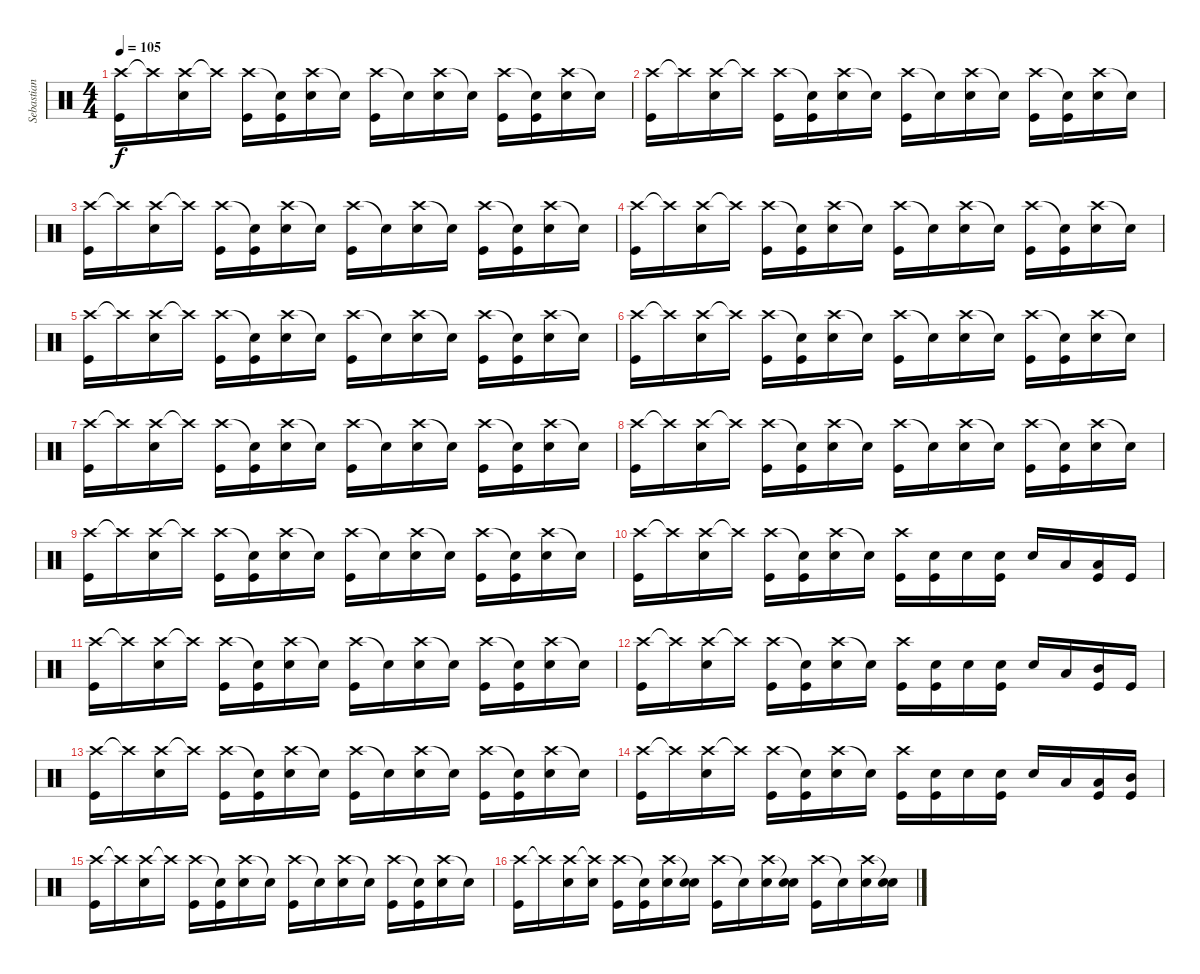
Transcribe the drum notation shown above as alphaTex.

\track ("Sebastian Grainger" "Sebastian ") {instrument percussion}
\staff {score}
\articulation defaults
\ts (4 4)
\tempo 105
\clef neutral
\ks c
("Crash high (hit)" "Kick (hit)").16{dy f} "Crash high (hit)"{t}.16 ("Crash high (hit)" "Snare (hit) 2").16 "Crash high (hit)"{t}.16 ("Crash high (hit)" "Kick (hit)").16 ("Snare (hit)"{t} "Kick (hit)").16 ("Crash high (hit)" "Snare (hit) 2").16 "Snare (hit)"{t}.16 ("Crash high (hit)" "Kick (hit)").16 "Snare (hit)"{t}.16 ("Crash high (hit)" "Snare (hit) 2").16 "Snare (hit)"{t}.16 ("Crash high (hit)" "Kick (hit)").16 ("Snare (hit)"{t} "Kick (hit)").16 ("Crash high (hit)" "Snare (hit) 2").16 "Snare (hit)"{t}.16 |
("Crash high (hit)" "Kick (hit)").16 "Crash high (hit)"{t}.16 ("Crash high (hit)" "Snare (hit) 2").16 "Crash high (hit)"{t}.16 ("Crash high (hit)" "Kick (hit)").16 ("Snare (hit)"{t} "Kick (hit)").16 ("Crash high (hit)" "Snare (hit) 2").16 "Snare (hit)"{t}.16 ("Crash high (hit)" "Kick (hit)").16 "Snare (hit)"{t}.16 ("Crash high (hit)" "Snare (hit) 2").16 "Snare (hit)"{t}.16 ("Crash high (hit)" "Kick (hit)").16 ("Snare (hit)"{t} "Kick (hit)").16 ("Crash high (hit)" "Snare (hit) 2").16 "Snare (hit)"{t}.16 |
("Crash high (hit)" "Kick (hit)").16 "Crash high (hit)"{t}.16 ("Crash high (hit)" "Snare (hit) 2").16 "Crash high (hit)"{t}.16 ("Crash high (hit)" "Kick (hit)").16 ("Snare (hit)"{t} "Kick (hit)").16 ("Crash high (hit)" "Snare (hit) 2").16 "Snare (hit)"{t}.16 ("Crash high (hit)" "Kick (hit)").16 "Snare (hit)"{t}.16 ("Crash high (hit)" "Snare (hit) 2").16 "Snare (hit)"{t}.16 ("Crash high (hit)" "Kick (hit)").16 ("Snare (hit)"{t} "Kick (hit)").16 ("Crash high (hit)" "Snare (hit) 2").16 "Snare (hit)"{t}.16 |
("Crash high (hit)" "Kick (hit)").16 "Crash high (hit)"{t}.16 ("Crash high (hit)" "Snare (hit) 2").16 "Crash high (hit)"{t}.16 ("Crash high (hit)" "Kick (hit)").16 ("Snare (hit)"{t} "Kick (hit)").16 ("Crash high (hit)" "Snare (hit) 2").16 "Snare (hit)"{t}.16 ("Crash high (hit)" "Kick (hit)").16 "Snare (hit)"{t}.16 ("Crash high (hit)" "Snare (hit) 2").16 "Snare (hit)"{t}.16 ("Crash high (hit)" "Kick (hit)").16 ("Snare (hit)"{t} "Kick (hit)").16 ("Crash high (hit)" "Snare (hit) 2").16 "Snare (hit)"{t}.16 |
("Crash high (hit)" "Kick (hit)").16 "Crash high (hit)"{t}.16 ("Crash high (hit)" "Snare (hit) 2").16 "Crash high (hit)"{t}.16 ("Crash high (hit)" "Kick (hit)").16 ("Snare (hit)"{t} "Kick (hit)").16 ("Crash high (hit)" "Snare (hit) 2").16 "Snare (hit)"{t}.16 ("Crash high (hit)" "Kick (hit)").16 "Snare (hit)"{t}.16 ("Crash high (hit)" "Snare (hit) 2").16 "Snare (hit)"{t}.16 ("Crash high (hit)" "Kick (hit)").16 ("Snare (hit)"{t} "Kick (hit)").16 ("Crash high (hit)" "Snare (hit) 2").16 "Snare (hit)"{t}.16 |
("Crash high (hit)" "Kick (hit)").16 "Crash high (hit)"{t}.16 ("Crash high (hit)" "Snare (hit) 2").16 "Crash high (hit)"{t}.16 ("Crash high (hit)" "Kick (hit)").16 ("Snare (hit)"{t} "Kick (hit)").16 ("Crash high (hit)" "Snare (hit) 2").16 "Snare (hit)"{t}.16 ("Crash high (hit)" "Kick (hit)").16 "Snare (hit)"{t}.16 ("Crash high (hit)" "Snare (hit) 2").16 "Snare (hit)"{t}.16 ("Crash high (hit)" "Kick (hit)").16 ("Snare (hit)"{t} "Kick (hit)").16 ("Crash high (hit)" "Snare (hit) 2").16 "Snare (hit)"{t}.16 |
("Crash high (hit)" "Kick (hit)").16 "Crash high (hit)"{t}.16 ("Crash high (hit)" "Snare (hit) 2").16 "Crash high (hit)"{t}.16 ("Crash high (hit)" "Kick (hit)").16 ("Snare (hit)"{t} "Kick (hit)").16 ("Crash high (hit)" "Snare (hit) 2").16 "Snare (hit)"{t}.16 ("Crash high (hit)" "Kick (hit)").16 "Snare (hit)"{t}.16 ("Crash high (hit)" "Snare (hit) 2").16 "Snare (hit)"{t}.16 ("Crash high (hit)" "Kick (hit)").16 ("Snare (hit)"{t} "Kick (hit)").16 ("Crash high (hit)" "Snare (hit) 2").16 "Snare (hit)"{t}.16 |
("Crash high (hit)" "Kick (hit)").16 "Crash high (hit)"{t}.16 ("Crash high (hit)" "Snare (hit) 2").16 "Crash high (hit)"{t}.16 ("Crash high (hit)" "Kick (hit)").16 ("Snare (hit)"{t} "Kick (hit)").16 ("Crash high (hit)" "Snare (hit) 2").16 "Snare (hit)"{t}.16 ("Crash high (hit)" "Kick (hit)").16 "Snare (hit)"{t}.16 ("Crash high (hit)" "Snare (hit) 2").16 "Snare (hit)"{t}.16 ("Crash high (hit)" "Kick (hit)").16 ("Snare (hit)"{t} "Kick (hit)").16 ("Crash high (hit)" "Snare (hit) 2").16 "Snare (hit)"{t}.16 |
("Crash high (hit)" "Kick (hit)").16 "Crash high (hit)"{t}.16 ("Crash high (hit)" "Snare (hit) 2").16 "Crash high (hit)"{t}.16 ("Crash high (hit)" "Kick (hit)").16 ("Snare (hit)"{t} "Kick (hit)").16 ("Crash high (hit)" "Snare (hit) 2").16 "Snare (hit)"{t}.16 ("Crash high (hit)" "Kick (hit)").16 "Snare (hit)"{t}.16 ("Crash high (hit)" "Snare (hit) 2").16 "Snare (hit)"{t}.16 ("Crash high (hit)" "Kick (hit)").16 ("Snare (hit)"{t} "Kick (hit)").16 ("Crash high (hit)" "Snare (hit) 2").16 "Snare (hit)"{t}.16 |
("Crash high (hit)" "Kick (hit)").16 "Crash high (hit)"{t}.16 ("Crash high (hit)" "Snare (hit) 2").16 "Crash high (hit)"{t}.16 ("Crash high (hit)" "Kick (hit)").16 ("Snare (hit)"{t} "Kick (hit)").16 ("Crash high (hit)" "Snare (hit) 2").16 "Snare (hit)"{t}.16 ("Crash high (hit)" "Kick (hit)").16 ("Snare (hit) 2" "Kick (hit)").16 "Snare (hit) 2".16 ("Snare (hit) 2" "Kick (hit)").16 "Snare (hit) 2".16 "Low Tom (hit)".16 ("Low Floor Tom (hit)" "Kick (hit)").16 "Kick (hit)".16 |
("Crash high (hit)" "Kick (hit)").16 "Crash high (hit)"{t}.16 ("Crash high (hit)" "Snare (hit) 2").16 "Crash high (hit)"{t}.16 ("Crash high (hit)" "Kick (hit)").16 ("Snare (hit)"{t} "Kick (hit)").16 ("Crash high (hit)" "Snare (hit) 2").16 "Snare (hit)"{t}.16 ("Crash high (hit)" "Kick (hit)").16 "Snare (hit)"{t}.16 ("Crash high (hit)" "Snare (hit) 2").16 "Snare (hit)"{t}.16 ("Crash high (hit)" "Kick (hit)").16 ("Snare (hit)"{t} "Kick (hit)").16 ("Crash high (hit)" "Snare (hit) 2").16 "Snare (hit)"{t}.16 |
("Crash high (hit)" "Kick (hit)").16 "Crash high (hit)"{t}.16 ("Crash high (hit)" "Snare (hit) 2").16 "Crash high (hit)"{t}.16 ("Crash high (hit)" "Kick (hit)").16 ("Snare (hit)"{t} "Kick (hit)").16 ("Crash high (hit)" "Snare (hit) 2").16 "Snare (hit)"{t}.16 ("Crash high (hit)" "Kick (hit)").16 ("Snare (hit) 2" "Kick (hit)").16 "Snare (hit) 2".16 ("Snare (hit) 2" "Kick (hit)").16 "Snare (hit) 2".16 "Low Tom (hit)".16 ("Mid Tom (hit)" "Kick (hit)").16 "Kick (hit)".16 |
("Crash high (hit)" "Kick (hit)").16 "Crash high (hit)"{t}.16 ("Crash high (hit)" "Snare (hit) 2").16 "Crash high (hit)"{t}.16 ("Crash high (hit)" "Kick (hit)").16 ("Snare (hit)"{t} "Kick (hit)").16 ("Crash high (hit)" "Snare (hit) 2").16 "Snare (hit)"{t}.16 ("Crash high (hit)" "Kick (hit)").16 "Snare (hit)"{t}.16 ("Crash high (hit)" "Snare (hit) 2").16 "Snare (hit)"{t}.16 ("Crash high (hit)" "Kick (hit)").16 ("Snare (hit)"{t} "Kick (hit)").16 ("Crash high (hit)" "Snare (hit) 2").16 "Snare (hit)"{t}.16 |
("Crash high (hit)" "Kick (hit)").16 "Crash high (hit)"{t}.16 ("Crash high (hit)" "Snare (hit) 2").16 "Crash high (hit)"{t}.16 ("Crash high (hit)" "Kick (hit)").16 ("Snare (hit)"{t} "Kick (hit)").16 ("Crash high (hit)" "Snare (hit) 2").16 "Snare (hit)"{t}.16 ("Crash high (hit)" "Kick (hit)").16 ("Snare (hit) 2" "Kick (hit)").16 "Snare (hit) 2".16 ("Snare (hit) 2" "Kick (hit)").16 "Snare (hit) 2".16 "Low Tom (hit)".16 ("Low Tom (hit)" "Kick (hit)").16 ("Mid Tom (hit)" "Kick (hit)").16 |
("Crash high (hit)" "Kick (hit)").16 "Crash high (hit)"{t}.16 ("Crash high (hit)" "Snare (hit) 2").16 "Crash high (hit)"{t}.16 ("Crash high (hit)" "Kick (hit)").16 ("Snare (hit)"{t} "Kick (hit)").16 ("Crash high (hit)" "Snare (hit) 2").16 "Snare (hit)"{t}.16 ("Crash high (hit)" "Kick (hit)").16 "Snare (hit)"{t}.16 ("Crash high (hit)" "Snare (hit) 2").16 "Snare (hit)"{t}.16 ("Crash high (hit)" "Kick (hit)").16 ("Snare (hit)"{t} "Kick (hit)").16 ("Crash high (hit)" "Snare (hit) 2").16 "Snare (hit)"{t}.16 |
("Crash high (hit)" "Kick (hit)").16 "Crash high (hit)"{t}.16 ("Crash high (hit)" "Snare (hit) 2").16 ("Crash high (hit)"{t} "Snare (hit) 2").16 ("Crash high (hit)" "Kick (hit)").16 ("Snare (hit)"{t} "Kick (hit)").16 ("Crash high (hit)" "Snare (hit) 2").16 ("Snare (hit)"{t} "Snare (hit) 2").16 ("Crash high (hit)" "Kick (hit)").16 "Snare (hit)"{t}.16 ("Crash high (hit)" "Snare (hit) 2").16 ("Snare (hit)"{t} "Snare (hit) 2").16 ("Crash high (hit)" "Kick (hit)").16 "Snare (hit)"{t}.16 ("Crash high (hit)" "Snare (hit) 2").16 ("Snare (hit)"{t} "Snare (hit) 2").16
